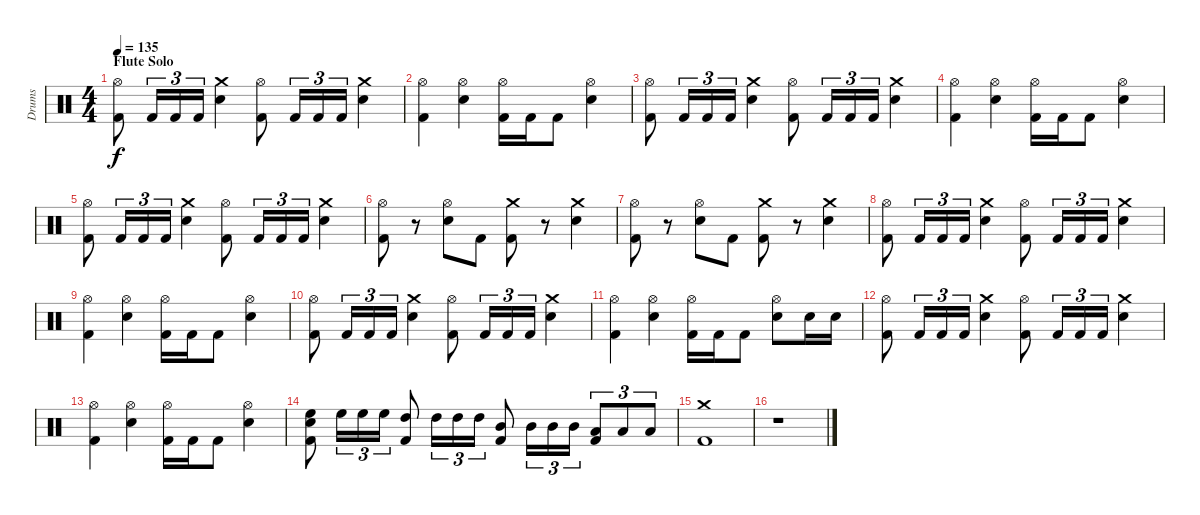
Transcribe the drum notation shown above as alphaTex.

\track ("Drums" "Drums") {instrument percussion}
\staff {score}
\articulation defaults
\ts (4 4)
\section ("" "Flute Solo")
\tempo 135
\clef neutral
\ks c
("Hi-Hat (open)" "Kick (hit) 2").8{dy f} "Kick (hit) 2".16{tu (3 2)} "Kick (hit) 2".16{tu (3 2)} "Kick (hit) 2".16{tu (3 2)} ("Crash medium (hit)" "Electric Snare (hit)").4 ("Hi-Hat (open)" "Kick (hit) 2").8 "Kick (hit) 2".16{tu (3 2)} "Kick (hit) 2".16{tu (3 2)} "Kick (hit) 2".16{tu (3 2)} ("Crash medium (hit)" "Electric Snare (hit)").4 |
("Hi-Hat (open)" "Kick (hit) 2").4 ("Hi-Hat (open)" "Electric Snare (hit)").4 ("Hi-Hat (open)" "Kick (hit) 2").16 "Kick (hit) 2".16 "Kick (hit) 2".8 ("Hi-Hat (open)" "Electric Snare (hit)").4 |
("Hi-Hat (open)" "Kick (hit) 2").8 "Kick (hit) 2".16{tu (3 2)} "Kick (hit) 2".16{tu (3 2)} "Kick (hit) 2".16{tu (3 2)} ("Crash medium (hit)" "Electric Snare (hit)").4 ("Hi-Hat (open)" "Kick (hit) 2").8 "Kick (hit) 2".16{tu (3 2)} "Kick (hit) 2".16{tu (3 2)} "Kick (hit) 2".16{tu (3 2)} ("Crash medium (hit)" "Electric Snare (hit)").4 |
("Hi-Hat (open)" "Kick (hit) 2").4 ("Hi-Hat (open)" "Electric Snare (hit)").4 ("Hi-Hat (open)" "Kick (hit) 2").16 "Kick (hit) 2".16 "Kick (hit) 2".8 ("Hi-Hat (open)" "Electric Snare (hit)").4 |
("Hi-Hat (open)" "Kick (hit) 2").8 "Kick (hit) 2".16{tu (3 2)} "Kick (hit) 2".16{tu (3 2)} "Kick (hit) 2".16{tu (3 2)} ("Crash medium (hit)" "Electric Snare (hit)").4 ("Hi-Hat (open)" "Kick (hit) 2").8 "Kick (hit) 2".16{tu (3 2)} "Kick (hit) 2".16{tu (3 2)} "Kick (hit) 2".16{tu (3 2)} ("Crash medium (hit)" "Electric Snare (hit)").4 |
("Hi-Hat (open)" "Kick (hit) 2").8 r.8 ("Hi-Hat (open)" "Electric Snare (hit)").8 "Kick (hit) 2".8 ("Crash medium (hit)" "Kick (hit) 2").8 r.8 ("Crash medium (hit)" "Electric Snare (hit)").4 |
("Hi-Hat (open)" "Kick (hit) 2").8 r.8 ("Hi-Hat (open)" "Electric Snare (hit)").8 "Kick (hit) 2".8 ("Crash medium (hit)" "Kick (hit) 2").8 r.8 ("Crash medium (hit)" "Electric Snare (hit)").4 |
("Hi-Hat (open)" "Kick (hit) 2").8 "Kick (hit) 2".16{tu (3 2)} "Kick (hit) 2".16{tu (3 2)} "Kick (hit) 2".16{tu (3 2)} ("Crash medium (hit)" "Electric Snare (hit)").4 ("Hi-Hat (open)" "Kick (hit) 2").8 "Kick (hit) 2".16{tu (3 2)} "Kick (hit) 2".16{tu (3 2)} "Kick (hit) 2".16{tu (3 2)} ("Crash medium (hit)" "Electric Snare (hit)").4 |
("Hi-Hat (open)" "Kick (hit) 2").4 ("Hi-Hat (open)" "Electric Snare (hit)").4 ("Hi-Hat (open)" "Kick (hit) 2").16 "Kick (hit) 2".16 "Kick (hit) 2".8 ("Hi-Hat (open)" "Electric Snare (hit)").4 |
("Hi-Hat (open)" "Kick (hit) 2").8 "Kick (hit) 2".16{tu (3 2)} "Kick (hit) 2".16{tu (3 2)} "Kick (hit) 2".16{tu (3 2)} ("Crash medium (hit)" "Electric Snare (hit)").4 ("Hi-Hat (open)" "Kick (hit) 2").8 "Kick (hit) 2".16{tu (3 2)} "Kick (hit) 2".16{tu (3 2)} "Kick (hit) 2".16{tu (3 2)} ("Crash medium (hit)" "Electric Snare (hit)").4 |
("Hi-Hat (open)" "Kick (hit) 2").4 ("Hi-Hat (open)" "Electric Snare (hit)").4 ("Hi-Hat (open)" "Kick (hit) 2").16 "Kick (hit) 2".16 "Kick (hit) 2".8 ("Hi-Hat (open)" "Electric Snare (hit)").8 "Electric Snare (hit)".16 "Electric Snare (hit)".16 |
("Hi-Hat (open)" "Kick (hit) 2").8 "Kick (hit) 2".16{tu (3 2)} "Kick (hit) 2".16{tu (3 2)} "Kick (hit) 2".16{tu (3 2)} ("Crash medium (hit)" "Electric Snare (hit)").4 ("Hi-Hat (open)" "Kick (hit) 2").8 "Kick (hit) 2".16{tu (3 2)} "Kick (hit) 2".16{tu (3 2)} "Kick (hit) 2".16{tu (3 2)} ("Crash medium (hit)" "Electric Snare (hit)").4 |
("Hi-Hat (open)" "Kick (hit) 2").4 ("Hi-Hat (open)" "Electric Snare (hit)").4 ("Hi-Hat (open)" "Kick (hit) 2").16 "Kick (hit) 2".16 "Kick (hit) 2".8 ("Hi-Hat (open)" "Electric Snare (hit)").4 |
("High Floor Tom (hit)" "Electric Snare (hit)" "Kick (hit) 2").8 "High Floor Tom (hit)".16{tu (3 2)} "High Floor Tom (hit)".16{tu (3 2)} "High Floor Tom (hit)".16{tu (3 2)} ("High Tom (hit)" "Kick (hit) 2").8 "High Tom (hit)".16{tu (3 2)} "High Tom (hit)".16{tu (3 2)} "High Tom (hit)".16{tu (3 2)} ("Mid Tom (hit)" "Kick (hit) 2").8 "Mid Tom (hit)".16{tu (3 2)} "Mid Tom (hit)".16{tu (3 2)} "Mid Tom (hit)".16{tu (3 2)} ("Low Tom (hit)" "Kick (hit) 2").8{tu (3 2)} "Low Tom (hit)".8{tu (3 2)} "Low Tom (hit)".8{tu (3 2)} |
("Crash medium (hit)" "Kick (hit) 2").1 |
r.1
